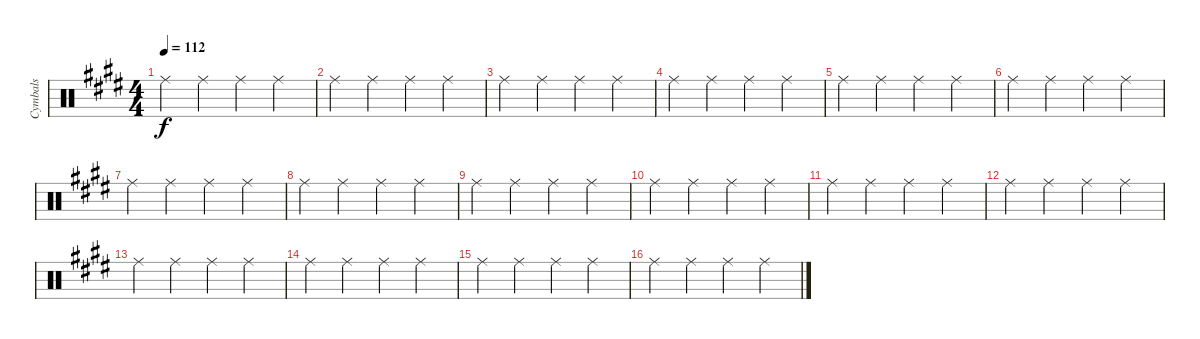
\track ("Cymbals" "Cymbals") {instrument percussion}
\staff {score}
\articulation defaults
\ts (4 4)
\tempo 112
\clef neutral
\ks e "Ride (middle)".4{dy f} "Ride (middle)".4 "Ride (middle)".4 "Ride (middle)".4
|
"Ride (middle)".4 "Ride (middle)".4 "Ride (middle)".4 "Ride (middle)".4 |
"Ride (middle)".4 "Ride (middle)".4 "Ride (middle)".4 "Ride (middle)".4 |
"Ride (middle)".4 "Ride (middle)".4 "Ride (middle)".4 "Ride (middle)".4 |
"Ride (middle)".4 "Ride (middle)".4 "Ride (middle)".4 "Ride (middle)".4 |
"Ride (middle)".4 "Ride (middle)".4 "Ride (middle)".4 "Ride (middle)".4 |
"Ride (middle)".4 "Ride (middle)".4 "Ride (middle)".4 "Ride (middle)".4 |
"Ride (middle)".4 "Ride (middle)".4 "Ride (middle)".4 "Ride (middle)".4 |
"Ride (middle)".4 "Ride (middle)".4 "Ride (middle)".4 "Ride (middle)".4 |
"Ride (middle)".4 "Ride (middle)".4 "Ride (middle)".4 "Ride (middle)".4 |
"Ride (middle)".4 "Ride (middle)".4 "Ride (middle)".4 "Ride (middle)".4 |
"Ride (middle)".4 "Ride (middle)".4 "Ride (middle)".4 "Ride (middle)".4 |
"Ride (middle)".4 "Ride (middle)".4 "Ride (middle)".4 "Ride (middle)".4 |
"Ride (middle)".4 "Ride (middle)".4 "Ride (middle)".4 "Ride (middle)".4 |
"Ride (middle)".4 "Ride (middle)".4 "Ride (middle)".4 "Ride (middle)".4 |
"Ride (middle)".4 "Ride (middle)".4 "Ride (middle)".4 "Ride (middle)".4
